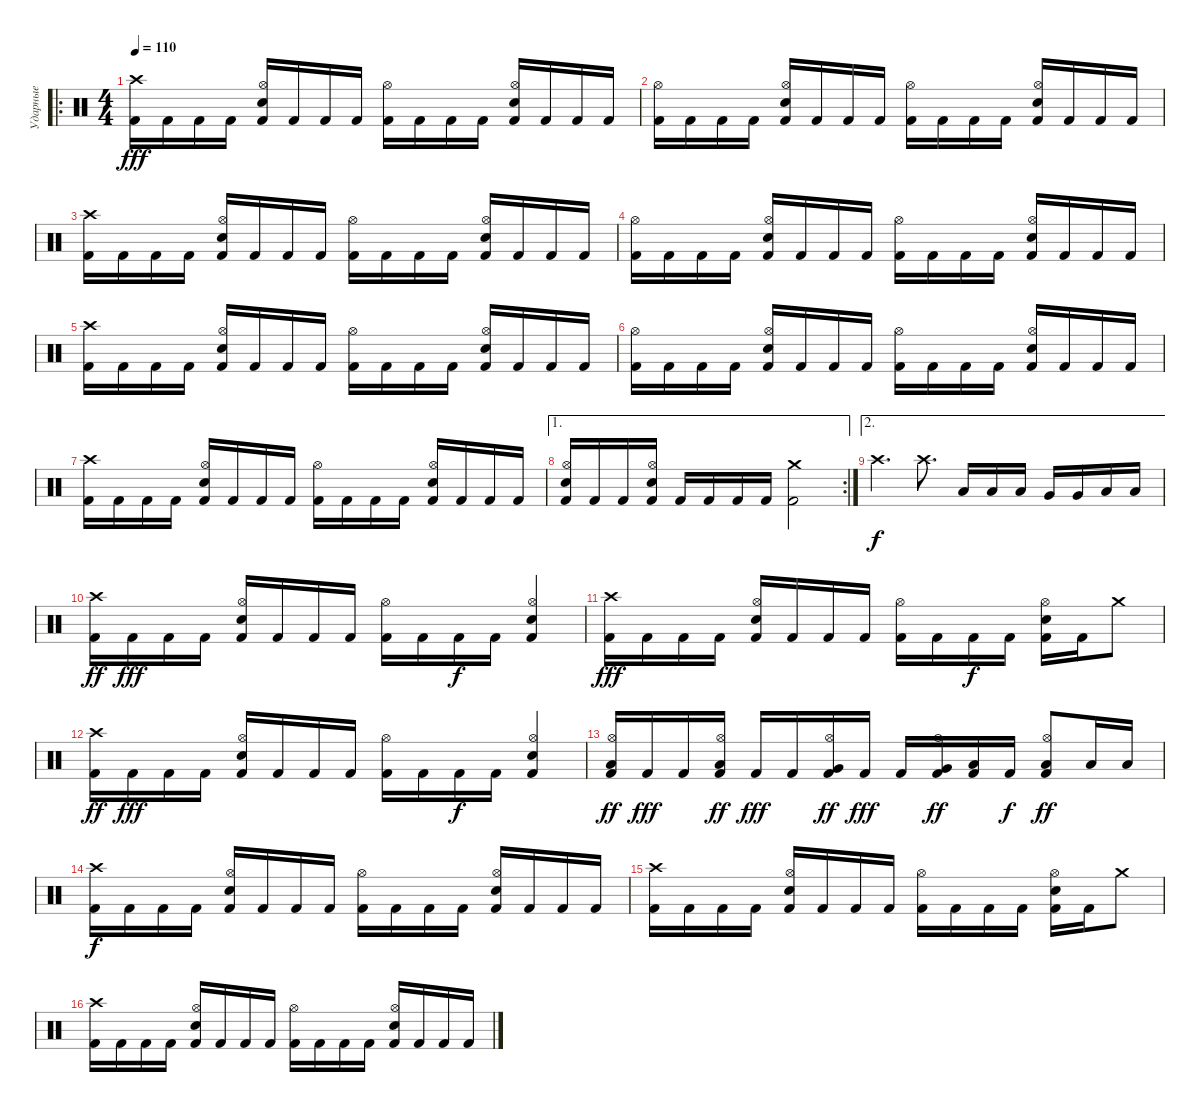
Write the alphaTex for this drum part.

\track ("Ударные" "Ударные") {instrument percussion}
\staff {score}
\articulation defaults
\ro
\ts (4 4)
\tempo 110
\clef neutral
\ks c
("Kick (hit) 2" "Crash high (hit)").16{dy fff} "Kick (hit) 2".16 "Kick (hit) 2".16 "Kick (hit) 2".16 ("Kick (hit) 2" "Hi-Hat (open)" "Snare (hit) 2").16 "Kick (hit) 2".16 "Kick (hit) 2".16 "Kick (hit) 2".16 ("Kick (hit) 2" "Hi-Hat (open)").16 "Kick (hit) 2".16 "Kick (hit) 2".16 "Kick (hit) 2".16 ("Kick (hit) 2" "Hi-Hat (open)" "Snare (hit) 2").16 "Kick (hit) 2".16 "Kick (hit) 2".16 "Kick (hit) 2".16 |
("Kick (hit) 2" "Hi-Hat (open)").16 "Kick (hit) 2".16 "Kick (hit) 2".16 "Kick (hit) 2".16 ("Kick (hit) 2" "Hi-Hat (open)" "Snare (hit) 2").16 "Kick (hit) 2".16 "Kick (hit) 2".16 "Kick (hit) 2".16 ("Kick (hit) 2" "Hi-Hat (open)").16 "Kick (hit) 2".16 "Kick (hit) 2".16 "Kick (hit) 2".16 ("Kick (hit) 2" "Hi-Hat (open)" "Snare (hit) 2").16 "Kick (hit) 2".16 "Kick (hit) 2".16 "Kick (hit) 2".16 |
("Kick (hit) 2" "Crash high (hit)").16 "Kick (hit) 2".16 "Kick (hit) 2".16 "Kick (hit) 2".16 ("Kick (hit) 2" "Hi-Hat (open)" "Snare (hit) 2").16 "Kick (hit) 2".16 "Kick (hit) 2".16 "Kick (hit) 2".16 ("Kick (hit) 2" "Hi-Hat (open)").16 "Kick (hit) 2".16 "Kick (hit) 2".16 "Kick (hit) 2".16 ("Kick (hit) 2" "Hi-Hat (open)" "Snare (hit) 2").16 "Kick (hit) 2".16 "Kick (hit) 2".16 "Kick (hit) 2".16 |
("Kick (hit) 2" "Hi-Hat (open)").16 "Kick (hit) 2".16 "Kick (hit) 2".16 "Kick (hit) 2".16 ("Kick (hit) 2" "Hi-Hat (open)" "Snare (hit) 2").16 "Kick (hit) 2".16 "Kick (hit) 2".16 "Kick (hit) 2".16 ("Kick (hit) 2" "Hi-Hat (open)").16 "Kick (hit) 2".16 "Kick (hit) 2".16 "Kick (hit) 2".16 ("Kick (hit) 2" "Hi-Hat (open)" "Snare (hit) 2").16 "Kick (hit) 2".16 "Kick (hit) 2".16 "Kick (hit) 2".16 |
("Kick (hit) 2" "Crash high (hit)").16 "Kick (hit) 2".16 "Kick (hit) 2".16 "Kick (hit) 2".16 ("Kick (hit) 2" "Hi-Hat (open)" "Snare (hit) 2").16 "Kick (hit) 2".16 "Kick (hit) 2".16 "Kick (hit) 2".16 ("Kick (hit) 2" "Hi-Hat (open)").16 "Kick (hit) 2".16 "Kick (hit) 2".16 "Kick (hit) 2".16 ("Kick (hit) 2" "Hi-Hat (open)" "Snare (hit) 2").16 "Kick (hit) 2".16 "Kick (hit) 2".16 "Kick (hit) 2".16 |
("Kick (hit) 2" "Hi-Hat (open)").16 "Kick (hit) 2".16 "Kick (hit) 2".16 "Kick (hit) 2".16 ("Kick (hit) 2" "Hi-Hat (open)" "Snare (hit) 2").16 "Kick (hit) 2".16 "Kick (hit) 2".16 "Kick (hit) 2".16 ("Kick (hit) 2" "Hi-Hat (open)").16 "Kick (hit) 2".16 "Kick (hit) 2".16 "Kick (hit) 2".16 ("Kick (hit) 2" "Hi-Hat (open)" "Snare (hit) 2").16 "Kick (hit) 2".16 "Kick (hit) 2".16 "Kick (hit) 2".16 |
("Kick (hit) 2" "Crash high (hit)").16 "Kick (hit) 2".16 "Kick (hit) 2".16 "Kick (hit) 2".16 ("Kick (hit) 2" "Hi-Hat (open)" "Snare (hit) 2").16 "Kick (hit) 2".16 "Kick (hit) 2".16 "Kick (hit) 2".16 ("Kick (hit) 2" "Hi-Hat (open)").16 "Kick (hit) 2".16 "Kick (hit) 2".16 "Kick (hit) 2".16 ("Kick (hit) 2" "Hi-Hat (open)" "Snare (hit) 2").16 "Kick (hit) 2".16 "Kick (hit) 2".16 "Kick (hit) 2".16 |
\ae 1
\rc 2
("Kick (hit) 2" "Hi-Hat (open)" "Snare (hit) 2").16 "Kick (hit) 2".16 "Kick (hit) 2".16 ("Kick (hit) 2" "Hi-Hat (open)" "Snare (hit) 2").16 "Kick (hit) 2".16 "Kick (hit) 2".16 "Kick (hit) 2".16 "Kick (hit) 2".16 ("Kick (hit) 2" "Crash medium (hit)").2 |
\ae 2 "Crash high (hit)".4{d dy f} "Crash high (hit)".8{d} "Low Tom (hit)".16 "Low Tom (hit)".16 "Low Tom (hit)".16 "Very Low Tom (hit)".16 "Very Low Tom (hit)".16 "Low Floor Tom (hit)".16 "Low Floor Tom (hit)".16
|
("Kick (hit) 2" "Crash high (hit)").16{dy ff} "Kick (hit) 2".16{dy fff} "Kick (hit) 2".16 "Kick (hit) 2".16 ("Kick (hit) 2" "Hi-Hat (open)" "Snare (hit) 2").16 "Kick (hit) 2".16 "Kick (hit) 2".16 "Kick (hit) 2".16 ("Kick (hit) 2" "Hi-Hat (open)").16 "Kick (hit) 2".16 "Kick (hit) 2".16{dy f} "Kick (hit) 2".16 ("Kick (hit) 2" "Hi-Hat (open)" "Snare (hit) 2").4 |
("Kick (hit) 2" "Crash high (hit)").16{dy fff} "Kick (hit) 2".16 "Kick (hit) 2".16 "Kick (hit) 2".16 ("Kick (hit) 2" "Hi-Hat (open)" "Snare (hit) 2").16 "Kick (hit) 2".16 "Kick (hit) 2".16 "Kick (hit) 2".16 ("Kick (hit) 2" "Hi-Hat (open)").16 "Kick (hit) 2".16 "Kick (hit) 2".16{dy f} "Kick (hit) 2".16 ("Kick (hit) 2" "Hi-Hat (open)" "Snare (hit) 2").16 "Kick (hit) 2".16 "Crash medium (hit)".8 |
("Kick (hit) 2" "Crash high (hit)").16{dy ff} "Kick (hit) 2".16{dy fff} "Kick (hit) 2".16 "Kick (hit) 2".16 ("Kick (hit) 2" "Hi-Hat (open)" "Snare (hit) 2").16 "Kick (hit) 2".16 "Kick (hit) 2".16 "Kick (hit) 2".16 ("Kick (hit) 2" "Hi-Hat (open)").16 "Kick (hit) 2".16 "Kick (hit) 2".16{dy f} "Kick (hit) 2".16 ("Kick (hit) 2" "Hi-Hat (open)" "Snare (hit) 2").4 |
("Kick (hit) 2" "Low Floor Tom (hit)" "Hi-Hat (open)").16{dy ff} "Kick (hit) 2".16{dy fff} "Kick (hit) 2".16 ("Kick (hit) 2" "Low Floor Tom (hit)" "Hi-Hat (open)").16{dy ff} "Kick (hit) 2".16{dy fff} "Kick (hit) 2".16 ("Kick (hit) 2" "Very Low Tom (hit)" "Hi-Hat (open)").16{dy ff} "Kick (hit) 2".16{dy fff} "Kick (hit) 2".16 ("Kick (hit) 2" "Very Low Tom (hit)" "Hi-Hat (open)").16{dy ff} ("Kick (hit) 2" "Low Tom (hit)").16 "Kick (hit) 2".16{dy f} ("Kick (hit) 2" "Low Tom (hit)" "Hi-Hat (open)").8{dy ff} "Low Floor Tom (hit)".16 "Low Floor Tom (hit)".16 |
("Kick (hit) 2" "Crash high (hit)").16{dy f} "Kick (hit) 2".16 "Kick (hit) 2".16 "Kick (hit) 2".16 ("Kick (hit) 2" "Hi-Hat (open)" "Snare (hit) 2").16 "Kick (hit) 2".16 "Kick (hit) 2".16 "Kick (hit) 2".16 ("Kick (hit) 2" "Hi-Hat (open)").16 "Kick (hit) 2".16 "Kick (hit) 2".16 "Kick (hit) 2".16 ("Kick (hit) 2" "Hi-Hat (open)" "Snare (hit) 2").16 "Kick (hit) 2".16 "Kick (hit) 2".16 "Kick (hit) 2".16 |
("Kick (hit) 2" "Crash high (hit)").16 "Kick (hit) 2".16 "Kick (hit) 2".16 "Kick (hit) 2".16 ("Kick (hit) 2" "Hi-Hat (open)" "Snare (hit) 2").16 "Kick (hit) 2".16 "Kick (hit) 2".16 "Kick (hit) 2".16 ("Kick (hit) 2" "Hi-Hat (open)").16 "Kick (hit) 2".16 "Kick (hit) 2".16 "Kick (hit) 2".16 ("Kick (hit) 2" "Hi-Hat (open)" "Snare (hit) 2").16 "Kick (hit) 2".16 "Crash medium (hit)".8 |
("Kick (hit) 2" "Crash high (hit)").16 "Kick (hit) 2".16 "Kick (hit) 2".16 "Kick (hit) 2".16 ("Kick (hit) 2" "Hi-Hat (open)" "Snare (hit) 2").16 "Kick (hit) 2".16 "Kick (hit) 2".16 "Kick (hit) 2".16 ("Kick (hit) 2" "Hi-Hat (open)").16 "Kick (hit) 2".16 "Kick (hit) 2".16 "Kick (hit) 2".16 ("Kick (hit) 2" "Hi-Hat (open)" "Snare (hit) 2").16 "Kick (hit) 2".16 "Kick (hit) 2".16 "Kick (hit) 2".16
